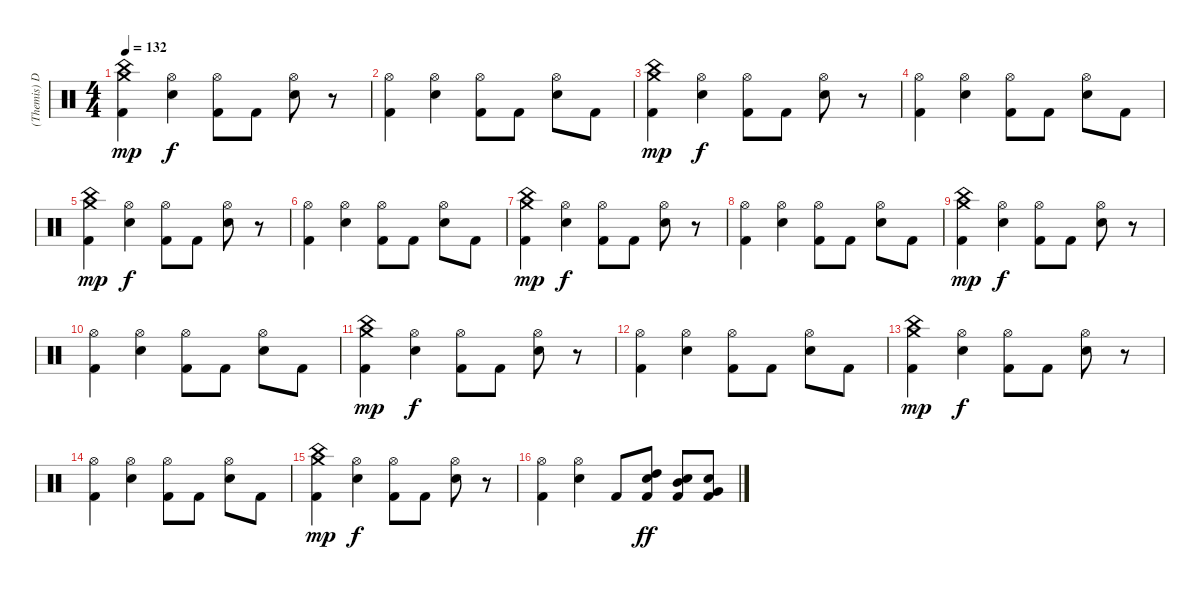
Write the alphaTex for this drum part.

\track ("(Themis) Drums" "(Themis) D") {instrument percussion}
\staff {score}
\articulation defaults
\ts (4 4)
\tempo 132
\clef neutral
\ks c
("Crash medium (hit)" "China (hit)" "Kick (hit) 2").4{dy mp} ("Hi-Hat (open)" "Electric Snare (hit)").4{dy f} ("Hi-Hat (open)" "Kick (hit) 2").8 "Kick (hit) 2".8 ("Hi-Hat (open)" "Electric Snare (hit)").8 r.8 |
("Hi-Hat (open)" "Kick (hit) 2").4 ("Hi-Hat (open)" "Electric Snare (hit)").4 ("Hi-Hat (open)" "Kick (hit) 2").8 "Kick (hit) 2".8 ("Hi-Hat (open)" "Electric Snare (hit)").8 "Kick (hit) 2".8 |
("Crash medium (hit)" "China (hit)" "Kick (hit) 2").4{dy mp} ("Hi-Hat (open)" "Electric Snare (hit)").4{dy f} ("Hi-Hat (open)" "Kick (hit) 2").8 "Kick (hit) 2".8 ("Hi-Hat (open)" "Electric Snare (hit)").8 r.8 |
("Hi-Hat (open)" "Kick (hit) 2").4 ("Hi-Hat (open)" "Electric Snare (hit)").4 ("Hi-Hat (open)" "Kick (hit) 2").8 "Kick (hit) 2".8 ("Hi-Hat (open)" "Electric Snare (hit)").8 "Kick (hit) 2".8 |
("Crash medium (hit)" "China (hit)" "Kick (hit) 2").4{dy mp} ("Hi-Hat (open)" "Electric Snare (hit)").4{dy f} ("Hi-Hat (open)" "Kick (hit) 2").8 "Kick (hit) 2".8 ("Hi-Hat (open)" "Electric Snare (hit)").8 r.8 |
("Hi-Hat (open)" "Kick (hit) 2").4 ("Hi-Hat (open)" "Electric Snare (hit)").4 ("Hi-Hat (open)" "Kick (hit) 2").8 "Kick (hit) 2".8 ("Hi-Hat (open)" "Electric Snare (hit)").8 "Kick (hit) 2".8 |
("Crash medium (hit)" "China (hit)" "Kick (hit) 2").4{dy mp} ("Hi-Hat (open)" "Electric Snare (hit)").4{dy f} ("Hi-Hat (open)" "Kick (hit) 2").8 "Kick (hit) 2".8 ("Hi-Hat (open)" "Electric Snare (hit)").8 r.8 |
("Hi-Hat (open)" "Kick (hit) 2").4 ("Hi-Hat (open)" "Electric Snare (hit)").4 ("Hi-Hat (open)" "Kick (hit) 2").8 "Kick (hit) 2".8 ("Hi-Hat (open)" "Electric Snare (hit)").8 "Kick (hit) 2".8 |
("Crash medium (hit)" "China (hit)" "Kick (hit) 2").4{dy mp} ("Hi-Hat (open)" "Electric Snare (hit)").4{dy f} ("Hi-Hat (open)" "Kick (hit) 2").8 "Kick (hit) 2".8 ("Hi-Hat (open)" "Electric Snare (hit)").8 r.8 |
("Hi-Hat (open)" "Kick (hit) 2").4 ("Hi-Hat (open)" "Electric Snare (hit)").4 ("Hi-Hat (open)" "Kick (hit) 2").8 "Kick (hit) 2".8 ("Hi-Hat (open)" "Electric Snare (hit)").8 "Kick (hit) 2".8 |
("Crash medium (hit)" "China (hit)" "Kick (hit) 2").4{dy mp} ("Hi-Hat (open)" "Electric Snare (hit)").4{dy f} ("Hi-Hat (open)" "Kick (hit) 2").8 "Kick (hit) 2".8 ("Hi-Hat (open)" "Electric Snare (hit)").8 r.8 |
("Hi-Hat (open)" "Kick (hit) 2").4 ("Hi-Hat (open)" "Electric Snare (hit)").4 ("Hi-Hat (open)" "Kick (hit) 2").8 "Kick (hit) 2".8 ("Hi-Hat (open)" "Electric Snare (hit)").8 "Kick (hit) 2".8 |
("Crash medium (hit)" "China (hit)" "Kick (hit) 2").4{dy mp} ("Hi-Hat (open)" "Electric Snare (hit)").4{dy f} ("Hi-Hat (open)" "Kick (hit) 2").8 "Kick (hit) 2".8 ("Hi-Hat (open)" "Electric Snare (hit)").8 r.8 |
("Hi-Hat (open)" "Kick (hit) 2").4 ("Hi-Hat (open)" "Electric Snare (hit)").4 ("Hi-Hat (open)" "Kick (hit) 2").8 "Kick (hit) 2".8 ("Hi-Hat (open)" "Electric Snare (hit)").8 "Kick (hit) 2".8 |
("Crash medium (hit)" "China (hit)" "Kick (hit) 2").4{dy mp} ("Hi-Hat (open)" "Electric Snare (hit)").4{dy f} ("Hi-Hat (open)" "Kick (hit) 2").8 "Kick (hit) 2".8 ("Hi-Hat (open)" "Electric Snare (hit)").8 r.8 |
("Hi-Hat (open)" "Kick (hit) 2").4 ("Hi-Hat (open)" "Electric Snare (hit)").4 "Kick (hit) 2".8 ("High Tom (hit)" "Electric Snare (hit)" "Kick (hit) 2").8{dy ff} ("Mid Tom (hit)" "Electric Snare (hit)" "Kick (hit) 2").8 ("Very Low Tom (hit)" "Electric Snare (hit)" "Kick (hit) 2").8
